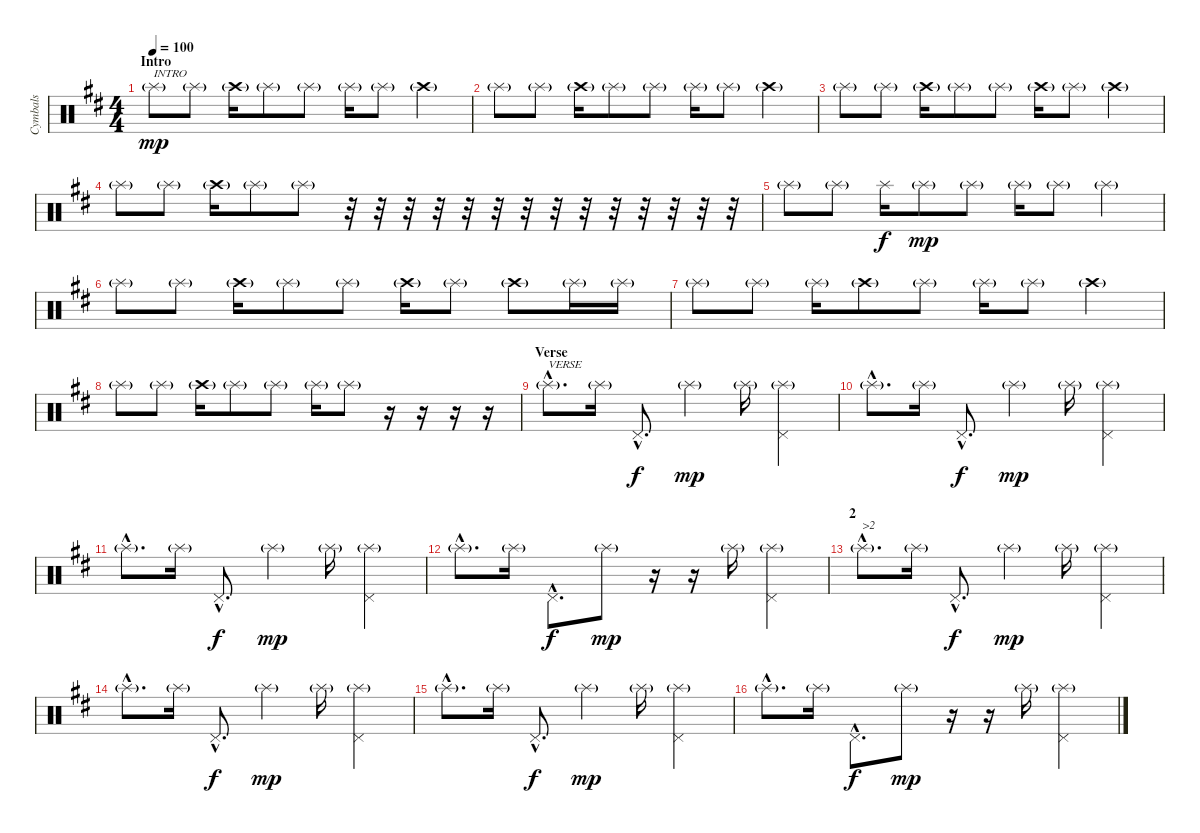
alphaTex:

\track ("Cymbals" "Cymbals") {instrument percussion}
\staff {score}
\articulation defaults
\ts (4 4)
\section ("" "Intro")
\tempo 100
\clef neutral
\ks d "Splash (hit)"{g}.8{txt "INTRO" dy mp} "Splash (hit)"{g}.8 "Crash high (hit)"{g}.16 "Splash (hit)"{g}.8 "Splash (hit)"{g}.8 "Splash (hit)"{g}.16 "Splash (hit)"{g}.8 "Crash high (hit)"{g}.4
|
"Splash (hit)"{g}.8 "Splash (hit)"{g}.8 "Crash high (hit)"{g}.16 "Splash (hit)"{g}.8 "Splash (hit)"{g}.8 "Splash (hit)"{g}.16 "Splash (hit)"{g}.8 "Crash high (hit)"{g}.4 |
"Splash (hit)"{g}.8 "Splash (hit)"{g}.8 "Crash high (hit)"{g}.16 "Splash (hit)"{g}.8 "Splash (hit)"{g}.8 "Crash high (hit)"{g}.16 "Splash (hit)"{g}.8 "Crash high (hit)"{g}.4 |
"Splash (hit)"{g}.8 "Splash (hit)"{g}.8 "Crash high (hit)"{g}.16 "Splash (hit)"{g}.8 "Splash (hit)"{g}.8 r.32 r.32 r.32 r.32 r.32{balance 2} r.32 r.32 r.32 r.32{balance 14} r.32 r.32 r.32{balance 2} r.32 r.32{balance 14} |
"Splash (hit)"{g}.8{balance 8} "Splash (hit)"{g}.8 "Splash (hit)".16{dy f} "Splash (hit)"{g}.8{dy mp} "Splash (hit)"{g}.8 "Splash (hit)"{g}.16 "Splash (hit)"{g}.8 "Splash (hit)"{g}.4 |
"Splash (hit)"{g}.8 "Splash (hit)"{g}.8 "Crash high (hit)"{g}.16 "Splash (hit)"{g}.8 "Splash (hit)"{g}.8 "Crash high (hit)"{g}.16 "Splash (hit)"{g}.8 "Crash high (hit)"{g}.8 "Splash (hit)"{g}.16 "Splash (hit)"{g}.16 |
"Splash (hit)"{g}.8 "Splash (hit)"{g}.8 "Splash (hit)"{g}.16 "Crash high (hit)"{g}.8 "Splash (hit)"{g}.8 "Splash (hit)"{g}.16 "Splash (hit)"{g}.8 "Crash high (hit)"{g}.4 |
"Splash (hit)"{g}.8 "Splash (hit)"{g}.8 "Crash high (hit)"{g}.16 "Splash (hit)"{g}.8 "Splash (hit)"{g}.8 "Splash (hit)"{g}.16 "Splash (hit)"{g}.8 r.16 r.16 r.16 r.16 |
\section ("" "Verse")
"Splash (hit)"{g hac}.8{d txt "VERSE"} "Splash (hit)"{g}.16 "Pedal Hi-Hat (hit)"{hac}.8{d dy f} "Splash (hit)"{g}.4{dy mp} "Splash (hit)"{g}.16 ("Pedal Hi-Hat (hit)" "Splash (hit)"{g}).4 |
"Splash (hit)"{g hac}.8{d} "Splash (hit)"{g}.16 "Pedal Hi-Hat (hit)"{hac}.8{d dy f} "Splash (hit)"{g}.4{dy mp} "Splash (hit)"{g}.16 ("Pedal Hi-Hat (hit)" "Splash (hit)"{g}).4 |
"Splash (hit)"{g hac}.8{d} "Splash (hit)"{g}.16 "Pedal Hi-Hat (hit)"{hac}.8{d dy f} "Splash (hit)"{g}.4{dy mp} "Splash (hit)"{g}.16 ("Pedal Hi-Hat (hit)" "Splash (hit)"{g}).4 |
"Splash (hit)"{g hac}.8{d} "Splash (hit)"{g}.16 "Pedal Hi-Hat (hit)"{hac}.8{d dy f} "Splash (hit)"{g}.8{dy mp} r.16 r.16 "Splash (hit)"{g}.16 ("Pedal Hi-Hat (hit)" "Splash (hit)"{g}).4 |
\section ("" "2")
"Splash (hit)"{g hac}.8{d txt ">2"} "Splash (hit)"{g}.16 "Pedal Hi-Hat (hit)"{hac}.8{d dy f} "Splash (hit)"{g}.4{dy mp} "Splash (hit)"{g}.16 ("Pedal Hi-Hat (hit)" "Splash (hit)"{g}).4 |
"Splash (hit)"{g hac}.8{d} "Splash (hit)"{g}.16 "Pedal Hi-Hat (hit)"{hac}.8{d dy f} "Splash (hit)"{g}.4{dy mp} "Splash (hit)"{g}.16 ("Pedal Hi-Hat (hit)" "Splash (hit)"{g}).4 |
"Splash (hit)"{g hac}.8{d} "Splash (hit)"{g}.16 "Pedal Hi-Hat (hit)"{hac}.8{d dy f} "Splash (hit)"{g}.4{dy mp} "Splash (hit)"{g}.16 ("Pedal Hi-Hat (hit)" "Splash (hit)"{g}).4 |
"Splash (hit)"{g hac}.8{d} "Splash (hit)"{g}.16 "Pedal Hi-Hat (hit)"{hac}.8{d dy f} "Splash (hit)"{g}.8{dy mp} r.16 r.16 "Splash (hit)"{g}.16 ("Pedal Hi-Hat (hit)" "Splash (hit)"{g}).4
